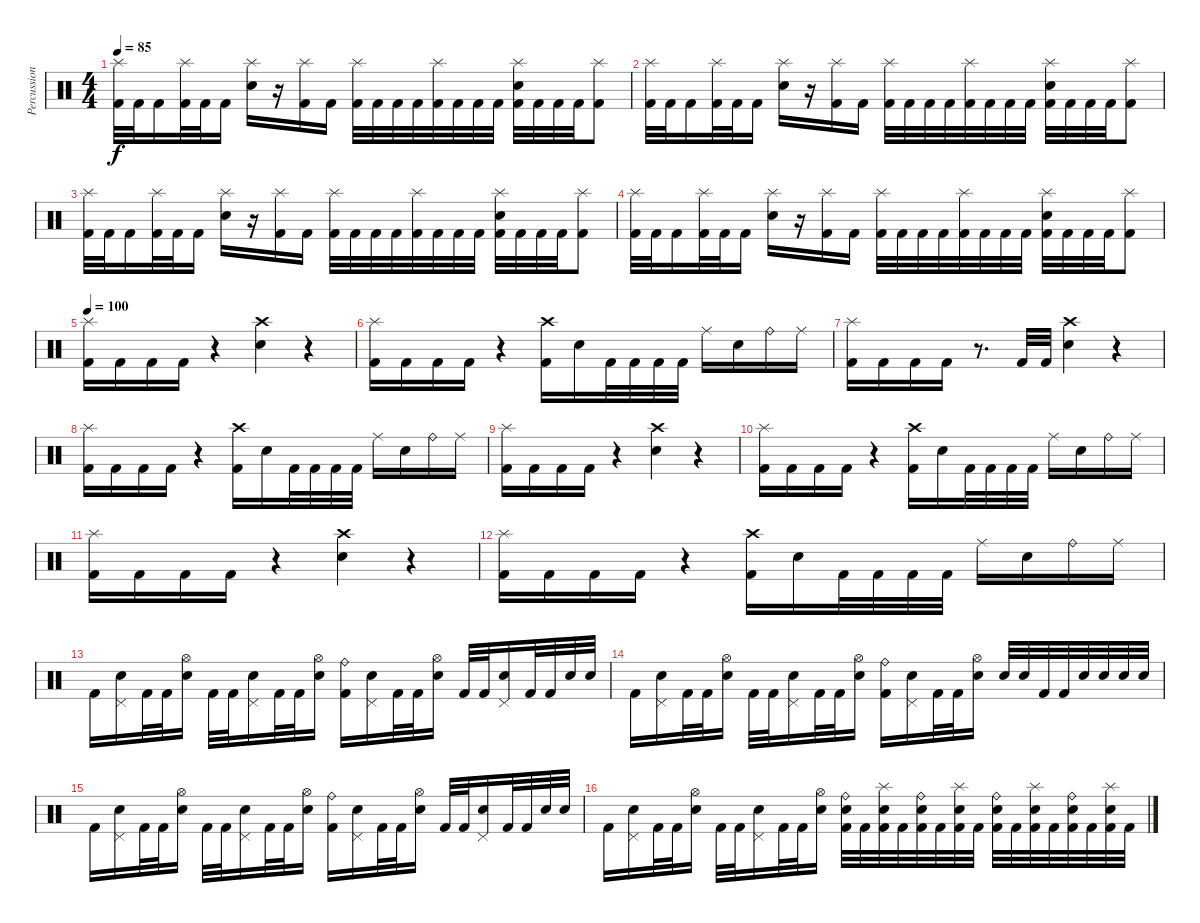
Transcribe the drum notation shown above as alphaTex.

\track ("Percussion" "Percussion") {instrument percussion}
\staff {score}
\articulation defaults
\ts (4 4)
\tempo 85
\clef neutral
\ks c
("Splash (hit)" "Kick (hit) 2").32{dy f} "Kick (hit) 2".32 "Kick (hit) 2".16 ("Splash (hit)" "Kick (hit) 2").32 "Kick (hit) 2".32 "Kick (hit) 2".16 ("Splash (hit)" "Snare (hit) 2").16 r.16 ("Splash (hit)" "Kick (hit) 2").16 "Kick (hit) 2".16 ("Splash (hit)" "Kick (hit) 2").32 "Kick (hit) 2".32 "Kick (hit) 2".32 "Kick (hit) 2".32 ("Splash (hit)" "Kick (hit) 2").32 "Kick (hit) 2".32 "Kick (hit) 2".32 "Kick (hit) 2".32 ("Splash (hit)" "Snare (hit) 2" "Kick (hit) 2").32 "Kick (hit) 2".32 "Kick (hit) 2".32 "Kick (hit) 2".32 ("Splash (hit)" "Kick (hit) 2").8 |
("Splash (hit)" "Kick (hit) 2").32 "Kick (hit) 2".32 "Kick (hit) 2".16 ("Splash (hit)" "Kick (hit) 2").32 "Kick (hit) 2".32 "Kick (hit) 2".16 ("Splash (hit)" "Snare (hit) 2").16 r.16 ("Splash (hit)" "Kick (hit) 2").16 "Kick (hit) 2".16 ("Splash (hit)" "Kick (hit) 2").32 "Kick (hit) 2".32 "Kick (hit) 2".32 "Kick (hit) 2".32 ("Splash (hit)" "Kick (hit) 2").32 "Kick (hit) 2".32 "Kick (hit) 2".32 "Kick (hit) 2".32 ("Splash (hit)" "Snare (hit) 2" "Kick (hit) 2").32 "Kick (hit) 2".32 "Kick (hit) 2".32 "Kick (hit) 2".32 ("Splash (hit)" "Kick (hit) 2").8 |
("Splash (hit)" "Kick (hit) 2").32 "Kick (hit) 2".32 "Kick (hit) 2".16 ("Splash (hit)" "Kick (hit) 2").32 "Kick (hit) 2".32 "Kick (hit) 2".16 ("Splash (hit)" "Snare (hit) 2").16 r.16 ("Splash (hit)" "Kick (hit) 2").16 "Kick (hit) 2".16 ("Splash (hit)" "Kick (hit) 2").32 "Kick (hit) 2".32 "Kick (hit) 2".32 "Kick (hit) 2".32 ("Splash (hit)" "Kick (hit) 2").32 "Kick (hit) 2".32 "Kick (hit) 2".32 "Kick (hit) 2".32 ("Splash (hit)" "Snare (hit) 2" "Kick (hit) 2").32 "Kick (hit) 2".32 "Kick (hit) 2".32 "Kick (hit) 2".32 ("Splash (hit)" "Kick (hit) 2").8 |
("Splash (hit)" "Kick (hit) 2").32 "Kick (hit) 2".32 "Kick (hit) 2".16 ("Splash (hit)" "Kick (hit) 2").32 "Kick (hit) 2".32 "Kick (hit) 2".16 ("Splash (hit)" "Snare (hit) 2").16 r.16 ("Splash (hit)" "Kick (hit) 2").16 "Kick (hit) 2".16 ("Splash (hit)" "Kick (hit) 2").32 "Kick (hit) 2".32 "Kick (hit) 2".32 "Kick (hit) 2".32 ("Splash (hit)" "Kick (hit) 2").32 "Kick (hit) 2".32 "Kick (hit) 2".32 "Kick (hit) 2".32 ("Splash (hit)" "Snare (hit) 2" "Kick (hit) 2").32 "Kick (hit) 2".32 "Kick (hit) 2".32 "Kick (hit) 2".32 ("Splash (hit)" "Kick (hit) 2").8 |
\tempo 100
("Splash (hit)" "Kick (hit) 2").16 "Kick (hit) 2".16 "Kick (hit) 2".16 "Kick (hit) 2".16 r.4 ("Crash high (hit)" "Snare (hit) 2").4 r.4 |
("Splash (hit)" "Kick (hit) 2").16 "Kick (hit) 2".16 "Kick (hit) 2".16 "Kick (hit) 2".16 r.4 ("Crash high (hit)" "Kick (hit) 2").16 "Snare (hit) 2".16 "Kick (hit) 2".32 "Kick (hit) 2".32 "Kick (hit) 2".32 "Kick (hit) 2".32 "Ride (middle)".16 "Snare (hit) 2".16 "Ride (bell)".16 "Ride (middle)".16 |
("Splash (hit)" "Kick (hit) 2").16 "Kick (hit) 2".16 "Kick (hit) 2".16 "Kick (hit) 2".16 r.8{d} "Kick (hit) 2".32 "Kick (hit) 2".32 ("Crash high (hit)" "Snare (hit) 2").4 r.4 |
("Splash (hit)" "Kick (hit) 2").16 "Kick (hit) 2".16 "Kick (hit) 2".16 "Kick (hit) 2".16 r.4 ("Crash high (hit)" "Kick (hit) 2").16 "Snare (hit) 2".16 "Kick (hit) 2".32 "Kick (hit) 2".32 "Kick (hit) 2".32 "Kick (hit) 2".32 "Ride (middle)".16 "Snare (hit) 2".16 "Ride (bell)".16 "Ride (middle)".16 |
("Splash (hit)" "Kick (hit) 2").16 "Kick (hit) 2".16 "Kick (hit) 2".16 "Kick (hit) 2".16 r.4 ("Crash high (hit)" "Snare (hit) 2").4 r.4 |
("Splash (hit)" "Kick (hit) 2").16 "Kick (hit) 2".16 "Kick (hit) 2".16 "Kick (hit) 2".16 r.4 ("Crash high (hit)" "Kick (hit) 2").16 "Snare (hit) 2".16 "Kick (hit) 2".32 "Kick (hit) 2".32 "Kick (hit) 2".32 "Kick (hit) 2".32 "Ride (middle)".16 "Snare (hit) 2".16 "Ride (bell)".16 "Ride (middle)".16 |
("Splash (hit)" "Kick (hit) 2").16 "Kick (hit) 2".16 "Kick (hit) 2".16 "Kick (hit) 2".16 r.4 ("Crash high (hit)" "Snare (hit) 2").4 r.4 |
("Splash (hit)" "Kick (hit) 2").16 "Kick (hit) 2".16 "Kick (hit) 2".16 "Kick (hit) 2".16 r.4 ("Crash high (hit)" "Kick (hit) 2").16 "Snare (hit) 2".16 "Kick (hit) 2".32 "Kick (hit) 2".32 "Kick (hit) 2".32 "Kick (hit) 2".32 "Ride (middle)".16 "Snare (hit) 2".16 "Ride (bell)".16 "Ride (middle)".16 |
"Kick (hit) 2".16 ("Pedal Hi-Hat (hit)" "Snare (hit) 2").16 "Kick (hit) 2".32 "Kick (hit) 2".32 ("Hi-Hat (open)" "Snare (hit) 2").16 "Kick (hit) 2".32 "Kick (hit) 2".32 ("Pedal Hi-Hat (hit)" "Snare (hit) 2").16 "Kick (hit) 2".32 "Kick (hit) 2".32 ("Hi-Hat (open)" "Snare (hit) 2").16 ("Ride (bell)" "Kick (hit) 2").16 ("Pedal Hi-Hat (hit)" "Snare (hit) 2").16 "Kick (hit) 2".32 "Kick (hit) 2".32 ("Hi-Hat (open)" "Snare (hit) 2").16 "Kick (hit) 2".32 "Kick (hit) 2".32 ("Pedal Hi-Hat (hit)" "Snare (hit) 2").16 "Kick (hit) 2".32 "Kick (hit) 2".32 "Snare (hit) 2".32 "Snare (hit) 2".32 |
"Kick (hit) 2".16 ("Pedal Hi-Hat (hit)" "Snare (hit) 2").16 "Kick (hit) 2".32 "Kick (hit) 2".32 ("Hi-Hat (open)" "Snare (hit) 2").16 "Kick (hit) 2".32 "Kick (hit) 2".32 ("Pedal Hi-Hat (hit)" "Snare (hit) 2").16 "Kick (hit) 2".32 "Kick (hit) 2".32 ("Hi-Hat (open)" "Snare (hit) 2").16 ("Ride (bell)" "Kick (hit) 2").16 ("Pedal Hi-Hat (hit)" "Snare (hit) 2").16 "Kick (hit) 2".32 "Kick (hit) 2".32 ("Hi-Hat (open)" "Snare (hit) 2").16 "Snare (hit) 2".32 "Snare (hit) 2".32 "Kick (hit) 2".32 "Kick (hit) 2".32 "Snare (hit) 2".32 "Snare (hit) 2".32 "Snare (hit) 2".32 "Snare (hit) 2".32 |
"Kick (hit) 2".16 ("Pedal Hi-Hat (hit)" "Snare (hit) 2").16 "Kick (hit) 2".32 "Kick (hit) 2".32 ("Hi-Hat (open)" "Snare (hit) 2").16 "Kick (hit) 2".32 "Kick (hit) 2".32 ("Pedal Hi-Hat (hit)" "Snare (hit) 2").16 "Kick (hit) 2".32 "Kick (hit) 2".32 ("Hi-Hat (open)" "Snare (hit) 2").16 ("Ride (bell)" "Kick (hit) 2").16 ("Pedal Hi-Hat (hit)" "Snare (hit) 2").16 "Kick (hit) 2".32 "Kick (hit) 2".32 ("Hi-Hat (open)" "Snare (hit) 2").16 "Kick (hit) 2".32 "Kick (hit) 2".32 ("Pedal Hi-Hat (hit)" "Snare (hit) 2").16 "Kick (hit) 2".32 "Kick (hit) 2".32 "Snare (hit) 2".32 "Snare (hit) 2".32 |
"Kick (hit) 2".16 ("Pedal Hi-Hat (hit)" "Snare (hit) 2").16 "Kick (hit) 2".32 "Kick (hit) 2".32 ("Hi-Hat (open)" "Snare (hit) 2").16 "Kick (hit) 2".32 "Kick (hit) 2".32 ("Pedal Hi-Hat (hit)" "Snare (hit) 2").16 "Kick (hit) 2".32 "Kick (hit) 2".32 ("Hi-Hat (open)" "Snare (hit) 2").16 ("Ride (bell)" "Snare (hit) 2" "Kick (hit) 2").32 "Kick (hit) 2".32 ("Splash (hit)" "Snare (hit) 2" "Kick (hit) 2").32 "Kick (hit) 2".32 ("Ride (bell)" "Snare (hit) 2" "Kick (hit) 2").32 "Kick (hit) 2".32 ("Splash (hit)" "Snare (hit) 2" "Kick (hit) 2").32 "Kick (hit) 2".32 ("Ride (bell)" "Snare (hit) 2" "Kick (hit) 2").32 "Kick (hit) 2".32 ("Splash (hit)" "Snare (hit) 2" "Kick (hit) 2").32 "Kick (hit) 2".32 ("Ride (bell)" "Snare (hit) 2" "Kick (hit) 2").32 "Kick (hit) 2".32 ("Splash (hit)" "Snare (hit) 2" "Kick (hit) 2").32 "Kick (hit) 2".32
